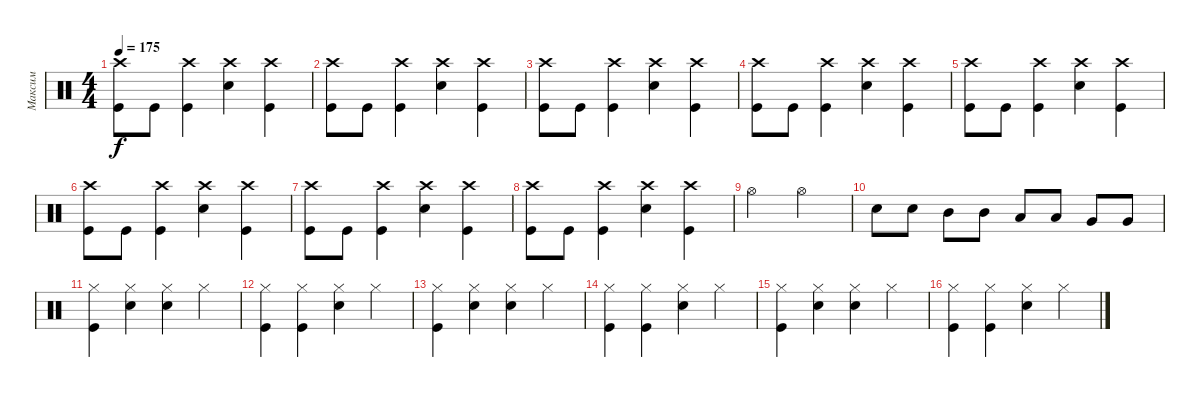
\track ("Максим" "Максим") {instrument percussion}
\staff {score}
\articulation defaults
\ts (4 4)
\tempo 175
\clef neutral
\ks c
("Crash high (hit)" "Kick (hit)").8{dy f} "Kick (hit)".8 ("Kick (hit)" "Crash high (hit)").4 ("Crash high (hit)" "Snare (hit) 2").4 ("Kick (hit)" "Crash high (hit)").4 |
("Crash high (hit)" "Kick (hit)").8 "Kick (hit)".8 ("Kick (hit)" "Crash high (hit)").4 ("Crash high (hit)" "Snare (hit) 2").4 ("Kick (hit)" "Crash high (hit)").4 |
("Crash high (hit)" "Kick (hit)").8 "Kick (hit)".8 ("Kick (hit)" "Crash high (hit)").4 ("Crash high (hit)" "Snare (hit) 2").4 ("Kick (hit)" "Crash high (hit)").4 |
("Crash high (hit)" "Kick (hit)").8 "Kick (hit)".8 ("Kick (hit)" "Crash high (hit)").4 ("Crash high (hit)" "Snare (hit) 2").4 ("Kick (hit)" "Crash high (hit)").4 |
("Crash high (hit)" "Kick (hit)").8 "Kick (hit)".8 ("Kick (hit)" "Crash high (hit)").4 ("Crash high (hit)" "Snare (hit) 2").4 ("Kick (hit)" "Crash high (hit)").4 |
("Crash high (hit)" "Kick (hit)").8 "Kick (hit)".8 ("Kick (hit)" "Crash high (hit)").4 ("Crash high (hit)" "Snare (hit) 2").4 ("Kick (hit)" "Crash high (hit)").4 |
("Crash high (hit)" "Kick (hit)").8 "Kick (hit)".8 ("Kick (hit)" "Crash high (hit)").4 ("Crash high (hit)" "Snare (hit) 2").4 ("Kick (hit)" "Crash high (hit)").4 |
("Crash high (hit)" "Kick (hit)").8 "Kick (hit)".8 ("Kick (hit)" "Crash high (hit)").4 ("Crash high (hit)" "Snare (hit) 2").4 ("Kick (hit)" "Crash high (hit)").4 |
"Hi-Hat (open)".2 "Hi-Hat (open)".2 |
"Snare (hit) 2".8 "Snare (hit) 2".8 "Mid Tom (hit)".8 "Mid Tom (hit)".8 "Low Tom (hit)".8 "Low Tom (hit)".8 "Very Low Tom (hit)".8 "Very Low Tom (hit)".8 |
("Hi-Hat (closed)" "Kick (hit)").4 ("Snare (hit)" "Hi-Hat (closed)").4 ("Snare (hit) 2" "Hi-Hat (closed)").4 "Hi-Hat (closed)".4 |
("Kick (hit)" "Hi-Hat (closed)").4 ("Kick (hit)" "Hi-Hat (closed)").4 ("Snare (hit) 2" "Hi-Hat (closed)").4 "Hi-Hat (closed)".4 |
("Hi-Hat (closed)" "Kick (hit)").4 ("Snare (hit)" "Hi-Hat (closed)").4 ("Snare (hit) 2" "Hi-Hat (closed)").4 "Hi-Hat (closed)".4 |
("Kick (hit)" "Hi-Hat (closed)").4 ("Kick (hit)" "Hi-Hat (closed)").4 ("Snare (hit) 2" "Hi-Hat (closed)").4 "Hi-Hat (closed)".4 |
("Hi-Hat (closed)" "Kick (hit)").4 ("Snare (hit)" "Hi-Hat (closed)").4 ("Snare (hit) 2" "Hi-Hat (closed)").4 "Hi-Hat (closed)".4 |
("Kick (hit)" "Hi-Hat (closed)").4 ("Kick (hit)" "Hi-Hat (closed)").4 ("Snare (hit) 2" "Hi-Hat (closed)").4 "Hi-Hat (closed)".4
